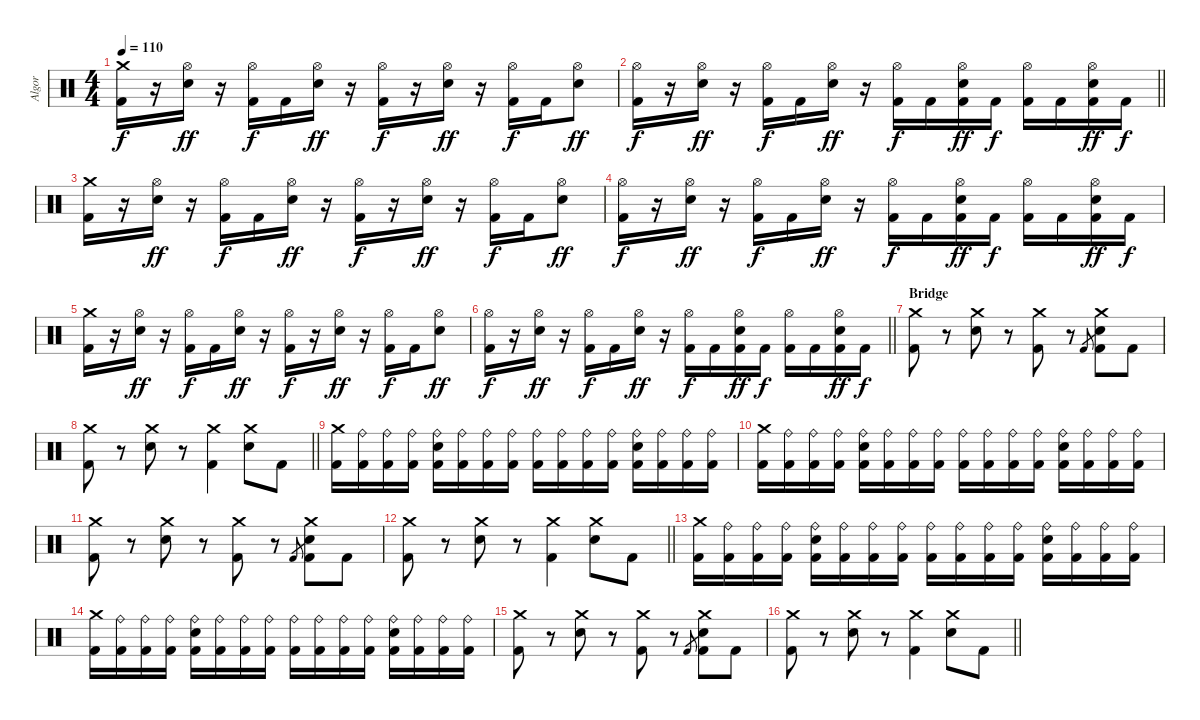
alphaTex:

\track ("Algor" "Algor") {instrument percussion}
\staff {score}
\articulation defaults
\ts (4 4)
\tempo 110
\clef neutral
\ks c
("Crash medium (hit)" "Kick (hit) 2").16{dy f} r.16 ("Hi-Hat (open)" "Snare (hit) 2").16{dy ff} r.16 ("Hi-Hat (open)" "Kick (hit) 2").16{dy f} "Kick (hit) 2".16 ("Hi-Hat (open)" "Snare (hit) 2").16{dy ff} r.16 ("Hi-Hat (open)" "Kick (hit) 2").16{dy f} r.16 ("Hi-Hat (open)" "Snare (hit) 2").16{dy ff} r.16 ("Hi-Hat (open)" "Kick (hit) 2").16{dy f} "Kick (hit) 2".16 ("Hi-Hat (open)" "Snare (hit) 2").8{dy ff} |
\barLineRight lightlight
("Hi-Hat (open)" "Kick (hit) 2").16{dy f} r.16 ("Hi-Hat (open)" "Snare (hit) 2").16{dy ff} r.16 ("Hi-Hat (open)" "Kick (hit) 2").16{dy f} "Kick (hit) 2".16 ("Hi-Hat (open)" "Snare (hit) 2").16{dy ff} r.16 ("Hi-Hat (open)" "Kick (hit) 2").16{dy f} "Kick (hit) 2".16 ("Hi-Hat (open)" "Snare (hit) 2" "Kick (hit) 2").16{dy ff} "Kick (hit) 2".16{dy f} ("Hi-Hat (open)" "Kick (hit) 2").16 "Kick (hit) 2".16 ("Hi-Hat (open)" "Snare (hit) 2" "Kick (hit) 2").16{dy ff} "Kick (hit) 2".16{dy f} |
("Crash medium (hit)" "Kick (hit) 2").16 r.16 ("Hi-Hat (open)" "Snare (hit) 2").16{dy ff} r.16 ("Hi-Hat (open)" "Kick (hit) 2").16{dy f} "Kick (hit) 2".16 ("Hi-Hat (open)" "Snare (hit) 2").16{dy ff} r.16 ("Hi-Hat (open)" "Kick (hit) 2").16{dy f} r.16 ("Hi-Hat (open)" "Snare (hit) 2").16{dy ff} r.16 ("Hi-Hat (open)" "Kick (hit) 2").16{dy f} "Kick (hit) 2".16 ("Hi-Hat (open)" "Snare (hit) 2").8{dy ff} |
("Hi-Hat (open)" "Kick (hit) 2").16{dy f} r.16 ("Hi-Hat (open)" "Snare (hit) 2").16{dy ff} r.16 ("Hi-Hat (open)" "Kick (hit) 2").16{dy f} "Kick (hit) 2".16 ("Hi-Hat (open)" "Snare (hit) 2").16{dy ff} r.16 ("Hi-Hat (open)" "Kick (hit) 2").16{dy f} "Kick (hit) 2".16 ("Hi-Hat (open)" "Snare (hit) 2" "Kick (hit) 2").16{dy ff} "Kick (hit) 2".16{dy f} ("Hi-Hat (open)" "Kick (hit) 2").16 "Kick (hit) 2".16 ("Hi-Hat (open)" "Snare (hit) 2" "Kick (hit) 2").16{dy ff} "Kick (hit) 2".16{dy f} |
("Crash medium (hit)" "Kick (hit) 2").16 r.16 ("Hi-Hat (open)" "Snare (hit) 2").16{dy ff} r.16 ("Hi-Hat (open)" "Kick (hit) 2").16{dy f} "Kick (hit) 2".16 ("Hi-Hat (open)" "Snare (hit) 2").16{dy ff} r.16 ("Hi-Hat (open)" "Kick (hit) 2").16{dy f} r.16 ("Hi-Hat (open)" "Snare (hit) 2").16{dy ff} r.16 ("Hi-Hat (open)" "Kick (hit) 2").16{dy f} "Kick (hit) 2".16 ("Hi-Hat (open)" "Snare (hit) 2").8{dy ff} |
\barLineRight lightlight
("Hi-Hat (open)" "Kick (hit) 2").16{dy f} r.16 ("Hi-Hat (open)" "Snare (hit) 2").16{dy ff} r.16 ("Hi-Hat (open)" "Kick (hit) 2").16{dy f} "Kick (hit) 2".16 ("Hi-Hat (open)" "Snare (hit) 2").16{dy ff} r.16 ("Hi-Hat (open)" "Kick (hit) 2").16{dy f} "Kick (hit) 2".16 ("Hi-Hat (open)" "Snare (hit) 2" "Kick (hit) 2").16{dy ff} "Kick (hit) 2".16{dy f} ("Hi-Hat (open)" "Kick (hit) 2").16 "Kick (hit) 2".16 ("Hi-Hat (open)" "Snare (hit) 2" "Kick (hit) 2").16{dy ff} "Kick (hit) 2".16{dy f} |
\section ("" "Bridge")
("Crash medium (hit)" "Kick (hit) 2").8 r.8 ("Crash medium (hit)" "Snare (hit) 2").8 r.8 ("Crash medium (hit)" "Kick (hit) 2").8 r.8 "Kick (hit) 2".8{gr} ("Crash medium (hit)" "Snare (hit) 2" "Kick (hit) 2").8 "Kick (hit) 2".8 |
\barLineRight lightlight
("Crash medium (hit)" "Kick (hit) 2").8 r.8 ("Crash medium (hit)" "Snare (hit) 2").8 r.8 ("Crash medium (hit)" "Kick (hit) 2").4 ("Crash medium (hit)" "Snare (hit) 2").8 "Kick (hit) 2".8 |
("Crash medium (hit)" "Kick (hit) 2").16 ("Ride (bell)" "Kick (hit) 2").16 ("Ride (bell)" "Kick (hit) 2").16 ("Ride (bell)" "Kick (hit) 2").16 ("Ride (bell)" "Snare (hit) 2" "Kick (hit) 2").16 ("Ride (bell)" "Kick (hit) 2").16 ("Ride (bell)" "Kick (hit) 2").16 ("Ride (bell)" "Kick (hit) 2").16 ("Ride (bell)" "Kick (hit) 2").16 ("Ride (bell)" "Kick (hit) 2").16 ("Ride (bell)" "Kick (hit) 2").16 ("Ride (bell)" "Kick (hit) 2").16 ("Ride (bell)" "Snare (hit) 2" "Kick (hit) 2").16 ("Ride (bell)" "Kick (hit) 2").16 ("Ride (bell)" "Kick (hit) 2").16 ("Ride (bell)" "Kick (hit) 2").16 |
("Crash medium (hit)" "Kick (hit) 2").16 ("Ride (bell)" "Kick (hit) 2").16 ("Ride (bell)" "Kick (hit) 2").16 ("Ride (bell)" "Kick (hit) 2").16 ("Ride (bell)" "Snare (hit) 2" "Kick (hit) 2").16 ("Ride (bell)" "Kick (hit) 2").16 ("Ride (bell)" "Kick (hit) 2").16 ("Ride (bell)" "Kick (hit) 2").16 ("Ride (bell)" "Kick (hit) 2").16 ("Ride (bell)" "Kick (hit) 2").16 ("Ride (bell)" "Kick (hit) 2").16 ("Ride (bell)" "Kick (hit) 2").16 ("Ride (bell)" "Snare (hit) 2" "Kick (hit) 2").16 ("Ride (bell)" "Kick (hit) 2").16 ("Ride (bell)" "Kick (hit) 2").16 ("Ride (bell)" "Kick (hit) 2").16 |
("Crash medium (hit)" "Kick (hit) 2").8 r.8 ("Crash medium (hit)" "Snare (hit) 2").8 r.8 ("Crash medium (hit)" "Kick (hit) 2").8 r.8 "Kick (hit) 2".8{gr} ("Crash medium (hit)" "Snare (hit) 2" "Kick (hit) 2").8 "Kick (hit) 2".8 |
\barLineRight lightlight
("Crash medium (hit)" "Kick (hit) 2").8 r.8 ("Crash medium (hit)" "Snare (hit) 2").8 r.8 ("Crash medium (hit)" "Kick (hit) 2").4 ("Crash medium (hit)" "Snare (hit) 2").8 "Kick (hit) 2".8 |
("Crash medium (hit)" "Kick (hit) 2").16 ("Ride (bell)" "Kick (hit) 2").16 ("Ride (bell)" "Kick (hit) 2").16 ("Ride (bell)" "Kick (hit) 2").16 ("Ride (bell)" "Snare (hit) 2" "Kick (hit) 2").16 ("Ride (bell)" "Kick (hit) 2").16 ("Ride (bell)" "Kick (hit) 2").16 ("Ride (bell)" "Kick (hit) 2").16 ("Ride (bell)" "Kick (hit) 2").16 ("Ride (bell)" "Kick (hit) 2").16 ("Ride (bell)" "Kick (hit) 2").16 ("Ride (bell)" "Kick (hit) 2").16 ("Ride (bell)" "Snare (hit) 2" "Kick (hit) 2").16 ("Ride (bell)" "Kick (hit) 2").16 ("Ride (bell)" "Kick (hit) 2").16 ("Ride (bell)" "Kick (hit) 2").16 |
("Crash medium (hit)" "Kick (hit) 2").16 ("Ride (bell)" "Kick (hit) 2").16 ("Ride (bell)" "Kick (hit) 2").16 ("Ride (bell)" "Kick (hit) 2").16 ("Ride (bell)" "Snare (hit) 2" "Kick (hit) 2").16 ("Ride (bell)" "Kick (hit) 2").16 ("Ride (bell)" "Kick (hit) 2").16 ("Ride (bell)" "Kick (hit) 2").16 ("Ride (bell)" "Kick (hit) 2").16 ("Ride (bell)" "Kick (hit) 2").16 ("Ride (bell)" "Kick (hit) 2").16 ("Ride (bell)" "Kick (hit) 2").16 ("Ride (bell)" "Snare (hit) 2" "Kick (hit) 2").16 ("Ride (bell)" "Kick (hit) 2").16 ("Ride (bell)" "Kick (hit) 2").16 ("Ride (bell)" "Kick (hit) 2").16 |
("Crash medium (hit)" "Kick (hit) 2").8 r.8 ("Crash medium (hit)" "Snare (hit) 2").8 r.8 ("Crash medium (hit)" "Kick (hit) 2").8 r.8 "Kick (hit) 2".8{gr} ("Crash medium (hit)" "Snare (hit) 2" "Kick (hit) 2").8 "Kick (hit) 2".8 |
\barLineRight lightlight
("Crash medium (hit)" "Kick (hit) 2").8 r.8 ("Crash medium (hit)" "Snare (hit) 2").8 r.8 ("Crash medium (hit)" "Kick (hit) 2").4 ("Crash medium (hit)" "Snare (hit) 2").8 "Kick (hit) 2".8
